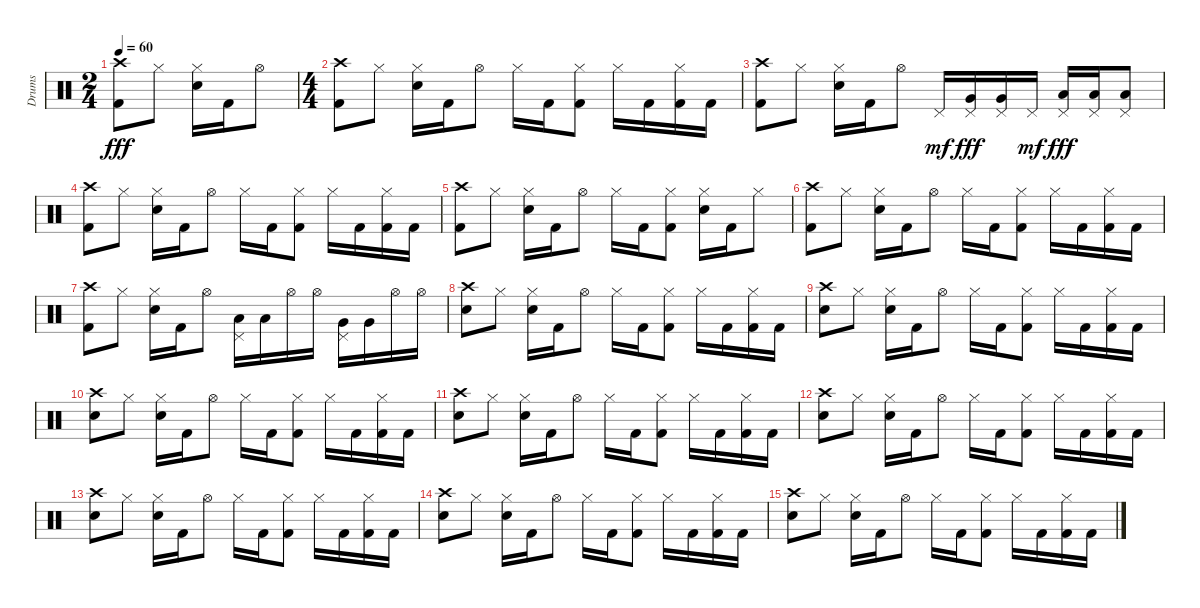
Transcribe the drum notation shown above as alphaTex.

\track ("Drums" "Drums") {instrument percussion}
\staff {score}
\articulation defaults
\ts (2 4)
\tempo 60
\clef neutral
\ks c
("Crash high (hit)" "Kick (hit) 2").8{dy fff} "Hi-Hat (closed)".8 ("Hi-Hat (closed)" "Snare (hit) 2").16 "Kick (hit) 2".16 "Hi-Hat (open)".8 |
\ts (4 4)
("Crash high (hit)" "Kick (hit) 2").8 "Hi-Hat (closed)".8 ("Hi-Hat (closed)" "Snare (hit) 2").16 "Kick (hit) 2".16 "Hi-Hat (open)".8 "Hi-Hat (closed)".16 "Kick (hit) 2".16 ("Hi-Hat (closed)" "Kick (hit) 2").8 "Hi-Hat (closed)".16 "Kick (hit) 2".16 ("Hi-Hat (closed)" "Kick (hit) 2").16 "Kick (hit) 2".16 |
("Crash high (hit)" "Kick (hit) 2").8 "Hi-Hat (closed)".8 ("Hi-Hat (closed)" "Snare (hit) 2").16 "Kick (hit) 2".16 "Hi-Hat (open)".8 "Pedal Hi-Hat (hit)".16{dy mf} ("Pedal Hi-Hat (hit)" "Very Low Tom (hit)").16{dy fff} ("Pedal Hi-Hat (hit)" "Very Low Tom (hit)").16 "Pedal Hi-Hat (hit)".16{dy mf} ("Pedal Hi-Hat (hit)" "Low Floor Tom (hit)").16{dy fff} ("Pedal Hi-Hat (hit)" "Low Floor Tom (hit)").16 ("Pedal Hi-Hat (hit)" "Low Floor Tom (hit)").8 |
("Crash high (hit)" "Kick (hit) 2").8 "Hi-Hat (closed)".8 ("Hi-Hat (closed)" "Snare (hit) 2").16 "Kick (hit) 2".16 "Hi-Hat (open)".8 "Hi-Hat (closed)".16 "Kick (hit) 2".16 ("Hi-Hat (closed)" "Kick (hit) 2").8 "Hi-Hat (closed)".16 "Kick (hit) 2".16 ("Hi-Hat (closed)" "Kick (hit) 2").16 "Kick (hit) 2".16 |
("Crash high (hit)" "Kick (hit) 2").8 "Hi-Hat (closed)".8 ("Hi-Hat (closed)" "Snare (hit) 2").16 "Kick (hit) 2".16 "Hi-Hat (open)".8 "Hi-Hat (closed)".16 "Kick (hit) 2".16 ("Hi-Hat (closed)" "Kick (hit) 2").8 ("Hi-Hat (closed)" "Snare (hit) 2").16 "Kick (hit) 2".16 "Hi-Hat (closed)".8 |
("Crash high (hit)" "Kick (hit) 2").8 "Hi-Hat (closed)".8 ("Hi-Hat (closed)" "Snare (hit) 2").16 "Kick (hit) 2".16 "Hi-Hat (open)".8 "Hi-Hat (closed)".16 "Kick (hit) 2".16 ("Hi-Hat (closed)" "Kick (hit) 2").8 "Hi-Hat (closed)".16 "Kick (hit) 2".16 ("Hi-Hat (closed)" "Kick (hit) 2").16 "Kick (hit) 2".16 |
("Crash high (hit)" "Kick (hit) 2").8 "Hi-Hat (closed)".8 ("Hi-Hat (closed)" "Snare (hit) 2").16 "Kick (hit) 2".16 "Hi-Hat (open)".8 ("Pedal Hi-Hat (hit)" "Low Tom (hit)").16 "Low Tom (hit)".16 "Hi-Hat (open)".16 "Hi-Hat (open)".16 ("Pedal Hi-Hat (hit)" "Very Low Tom (hit)").16 "Very Low Tom (hit)".16 "Hi-Hat (open)".16 "Hi-Hat (open)".16 |
("Crash high (hit)" "Snare (hit) 2").8 "Hi-Hat (closed)".8 ("Hi-Hat (closed)" "Snare (hit) 2").16 "Kick (hit) 2".16 "Hi-Hat (open)".8 "Hi-Hat (closed)".16 "Kick (hit) 2".16 ("Hi-Hat (closed)" "Kick (hit) 2").8 "Hi-Hat (closed)".16 "Kick (hit) 2".16 ("Hi-Hat (closed)" "Kick (hit) 2").16 "Kick (hit) 2".16 |
("Crash high (hit)" "Snare (hit) 2").8 "Hi-Hat (closed)".8 ("Hi-Hat (closed)" "Snare (hit) 2").16 "Kick (hit) 2".16 "Hi-Hat (open)".8 "Hi-Hat (closed)".16 "Kick (hit) 2".16 ("Hi-Hat (closed)" "Kick (hit) 2").8 "Hi-Hat (closed)".16 "Kick (hit) 2".16 ("Hi-Hat (closed)" "Kick (hit) 2").16 "Kick (hit) 2".16 |
("Crash high (hit)" "Snare (hit) 2").8 "Hi-Hat (closed)".8 ("Hi-Hat (closed)" "Snare (hit) 2").16 "Kick (hit) 2".16 "Hi-Hat (open)".8 "Hi-Hat (closed)".16 "Kick (hit) 2".16 ("Hi-Hat (closed)" "Kick (hit) 2").8 "Hi-Hat (closed)".16 "Kick (hit) 2".16 ("Hi-Hat (closed)" "Kick (hit) 2").16 "Kick (hit) 2".16 |
("Crash high (hit)" "Snare (hit) 2").8 "Hi-Hat (closed)".8 ("Hi-Hat (closed)" "Snare (hit) 2").16 "Kick (hit) 2".16 "Hi-Hat (open)".8 "Hi-Hat (closed)".16 "Kick (hit) 2".16 ("Hi-Hat (closed)" "Kick (hit) 2").8 "Hi-Hat (closed)".16 "Kick (hit) 2".16 ("Hi-Hat (closed)" "Kick (hit) 2").16 "Kick (hit) 2".16 |
("Crash high (hit)" "Snare (hit) 2").8 "Hi-Hat (closed)".8 ("Hi-Hat (closed)" "Snare (hit) 2").16 "Kick (hit) 2".16 "Hi-Hat (open)".8 "Hi-Hat (closed)".16 "Kick (hit) 2".16 ("Hi-Hat (closed)" "Kick (hit) 2").8 "Hi-Hat (closed)".16 "Kick (hit) 2".16 ("Hi-Hat (closed)" "Kick (hit) 2").16 "Kick (hit) 2".16 |
("Crash high (hit)" "Snare (hit) 2").8 "Hi-Hat (closed)".8 ("Hi-Hat (closed)" "Snare (hit) 2").16 "Kick (hit) 2".16 "Hi-Hat (open)".8 "Hi-Hat (closed)".16 "Kick (hit) 2".16 ("Hi-Hat (closed)" "Kick (hit) 2").8 "Hi-Hat (closed)".16 "Kick (hit) 2".16 ("Hi-Hat (closed)" "Kick (hit) 2").16 "Kick (hit) 2".16 |
("Crash high (hit)" "Snare (hit) 2").8 "Hi-Hat (closed)".8 ("Hi-Hat (closed)" "Snare (hit) 2").16 "Kick (hit) 2".16 "Hi-Hat (open)".8 "Hi-Hat (closed)".16 "Kick (hit) 2".16 ("Hi-Hat (closed)" "Kick (hit) 2").8 "Hi-Hat (closed)".16 "Kick (hit) 2".16 ("Hi-Hat (closed)" "Kick (hit) 2").16 "Kick (hit) 2".16 |
("Crash high (hit)" "Snare (hit) 2").8 "Hi-Hat (closed)".8 ("Hi-Hat (closed)" "Snare (hit) 2").16 "Kick (hit) 2".16 "Hi-Hat (open)".8 "Hi-Hat (closed)".16 "Kick (hit) 2".16 ("Hi-Hat (closed)" "Kick (hit) 2").8 "Hi-Hat (closed)".16 "Kick (hit) 2".16 ("Hi-Hat (closed)" "Kick (hit) 2").16 "Kick (hit) 2".16
